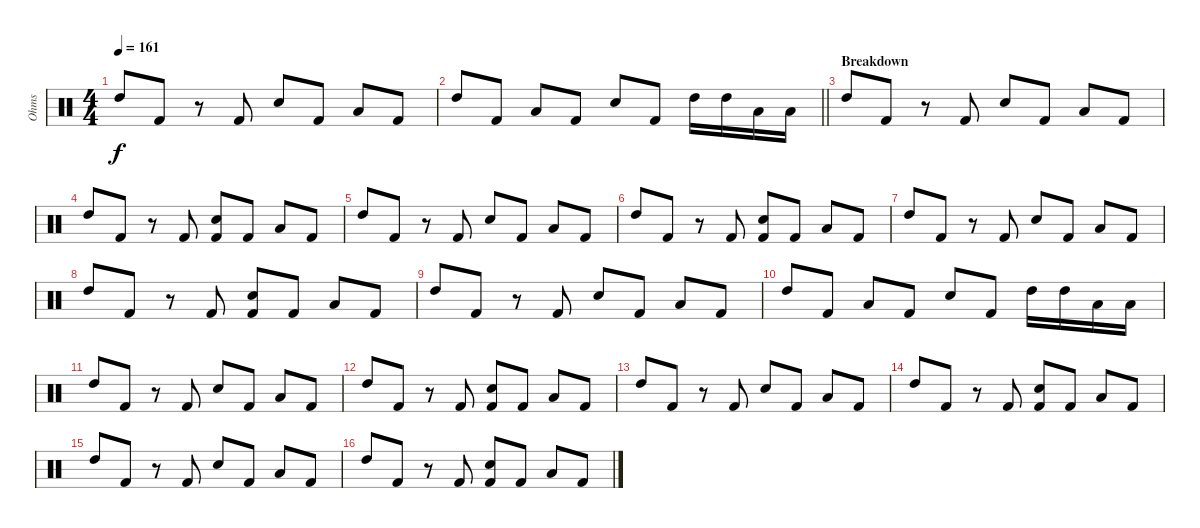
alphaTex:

\track ("Ohms" "Ohms") {instrument percussion}
\staff {score}
\articulation defaults
\ts (4 4)
\tempo 161
\clef neutral
\ks c "High Tom (hit)".8{dy f} "Kick (hit) 2".8
r.8 "Kick (hit) 2".8 "Snare (hit) 2".8 "Kick (hit) 2".8 "Low Tom (hit)".8 "Kick (hit) 2".8 |
\barLineRight lightlight "High Tom (hit)".8 "Kick (hit) 2".8 "Low Tom (hit)".8 "Kick (hit) 2".8 "Snare (hit) 2".8 "Kick (hit) 2".8 "High Tom (hit)".16 "High Tom (hit)".16 "Low Tom (hit)".16 "Low Tom (hit)".16
|
\section ("" "Breakdown")
"High Tom (hit)".8 "Kick (hit) 2".8 r.8 "Kick (hit) 2".8 "Snare (hit) 2".8 "Kick (hit) 2".8 "Low Tom (hit)".8 "Kick (hit) 2".8 |
"High Tom (hit)".8 "Kick (hit) 2".8 r.8 "Kick (hit) 2".8 ("Snare (hit) 2" "Kick (hit) 2").8 "Kick (hit) 2".8 "Low Tom (hit)".8 "Kick (hit) 2".8 |
"High Tom (hit)".8 "Kick (hit) 2".8 r.8 "Kick (hit) 2".8 "Snare (hit) 2".8 "Kick (hit) 2".8 "Low Tom (hit)".8 "Kick (hit) 2".8 |
"High Tom (hit)".8 "Kick (hit) 2".8 r.8 "Kick (hit) 2".8 ("Snare (hit) 2" "Kick (hit) 2").8 "Kick (hit) 2".8 "Low Tom (hit)".8 "Kick (hit) 2".8 |
"High Tom (hit)".8 "Kick (hit) 2".8 r.8 "Kick (hit) 2".8 "Snare (hit) 2".8 "Kick (hit) 2".8 "Low Tom (hit)".8 "Kick (hit) 2".8 |
"High Tom (hit)".8 "Kick (hit) 2".8 r.8 "Kick (hit) 2".8 ("Snare (hit) 2" "Kick (hit) 2").8 "Kick (hit) 2".8 "Low Tom (hit)".8 "Kick (hit) 2".8 |
"High Tom (hit)".8 "Kick (hit) 2".8 r.8 "Kick (hit) 2".8 "Snare (hit) 2".8 "Kick (hit) 2".8 "Low Tom (hit)".8 "Kick (hit) 2".8 |
"High Tom (hit)".8 "Kick (hit) 2".8 "Low Tom (hit)".8 "Kick (hit) 2".8 "Snare (hit) 2".8 "Kick (hit) 2".8 "High Tom (hit)".16 "High Tom (hit)".16 "Low Tom (hit)".16 "Low Tom (hit)".16 |
"High Tom (hit)".8 "Kick (hit) 2".8 r.8 "Kick (hit) 2".8 "Snare (hit) 2".8 "Kick (hit) 2".8 "Low Tom (hit)".8 "Kick (hit) 2".8 |
"High Tom (hit)".8 "Kick (hit) 2".8 r.8 "Kick (hit) 2".8 ("Snare (hit) 2" "Kick (hit) 2").8 "Kick (hit) 2".8 "Low Tom (hit)".8 "Kick (hit) 2".8 |
"High Tom (hit)".8 "Kick (hit) 2".8 r.8 "Kick (hit) 2".8 "Snare (hit) 2".8 "Kick (hit) 2".8 "Low Tom (hit)".8 "Kick (hit) 2".8 |
"High Tom (hit)".8 "Kick (hit) 2".8 r.8 "Kick (hit) 2".8 ("Snare (hit) 2" "Kick (hit) 2").8 "Kick (hit) 2".8 "Low Tom (hit)".8 "Kick (hit) 2".8 |
"High Tom (hit)".8 "Kick (hit) 2".8 r.8 "Kick (hit) 2".8 "Snare (hit) 2".8 "Kick (hit) 2".8 "Low Tom (hit)".8 "Kick (hit) 2".8 |
"High Tom (hit)".8 "Kick (hit) 2".8 r.8 "Kick (hit) 2".8 ("Snare (hit) 2" "Kick (hit) 2").8 "Kick (hit) 2".8 "Low Tom (hit)".8 "Kick (hit) 2".8
